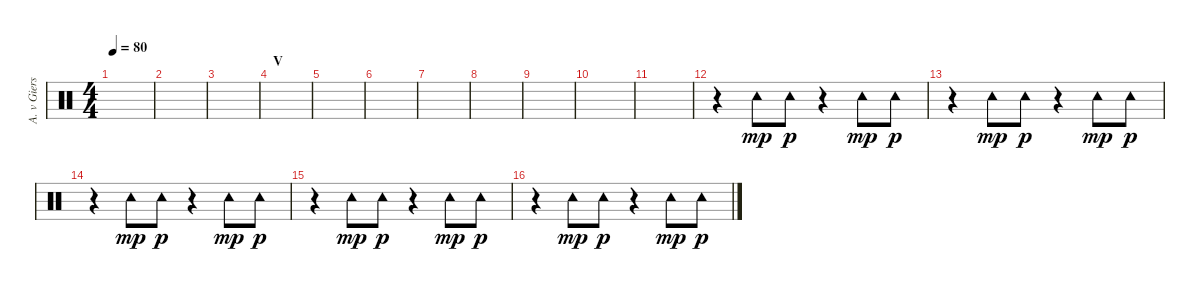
\track ("A. v Giersbergen (tambourine)" "A. v Giers") {instrument percussion}
\staff {score}
\articulation defaults
\ts (4 4)
\tempo 80
\clef neutral
\ks c
|
|
|
\section ("" "V")
|
|
|
|
|
|
|
|
r.4 "Tambourine (hit)".8{dy mp} "Tambourine (hit)".8{dy p} r.4 "Tambourine (hit)".8{dy mp} "Tambourine (hit)".8{dy p} |
r.4 "Tambourine (hit)".8{dy mp} "Tambourine (hit)".8{dy p} r.4 "Tambourine (hit)".8{dy mp} "Tambourine (hit)".8{dy p} |
r.4 "Tambourine (hit)".8{dy mp} "Tambourine (hit)".8{dy p} r.4 "Tambourine (hit)".8{dy mp} "Tambourine (hit)".8{dy p} |
r.4 "Tambourine (hit)".8{dy mp} "Tambourine (hit)".8{dy p} r.4 "Tambourine (hit)".8{dy mp} "Tambourine (hit)".8{dy p} |
r.4 "Tambourine (hit)".8{dy mp} "Tambourine (hit)".8{dy p} r.4 "Tambourine (hit)".8{dy mp} "Tambourine (hit)".8{dy p}
